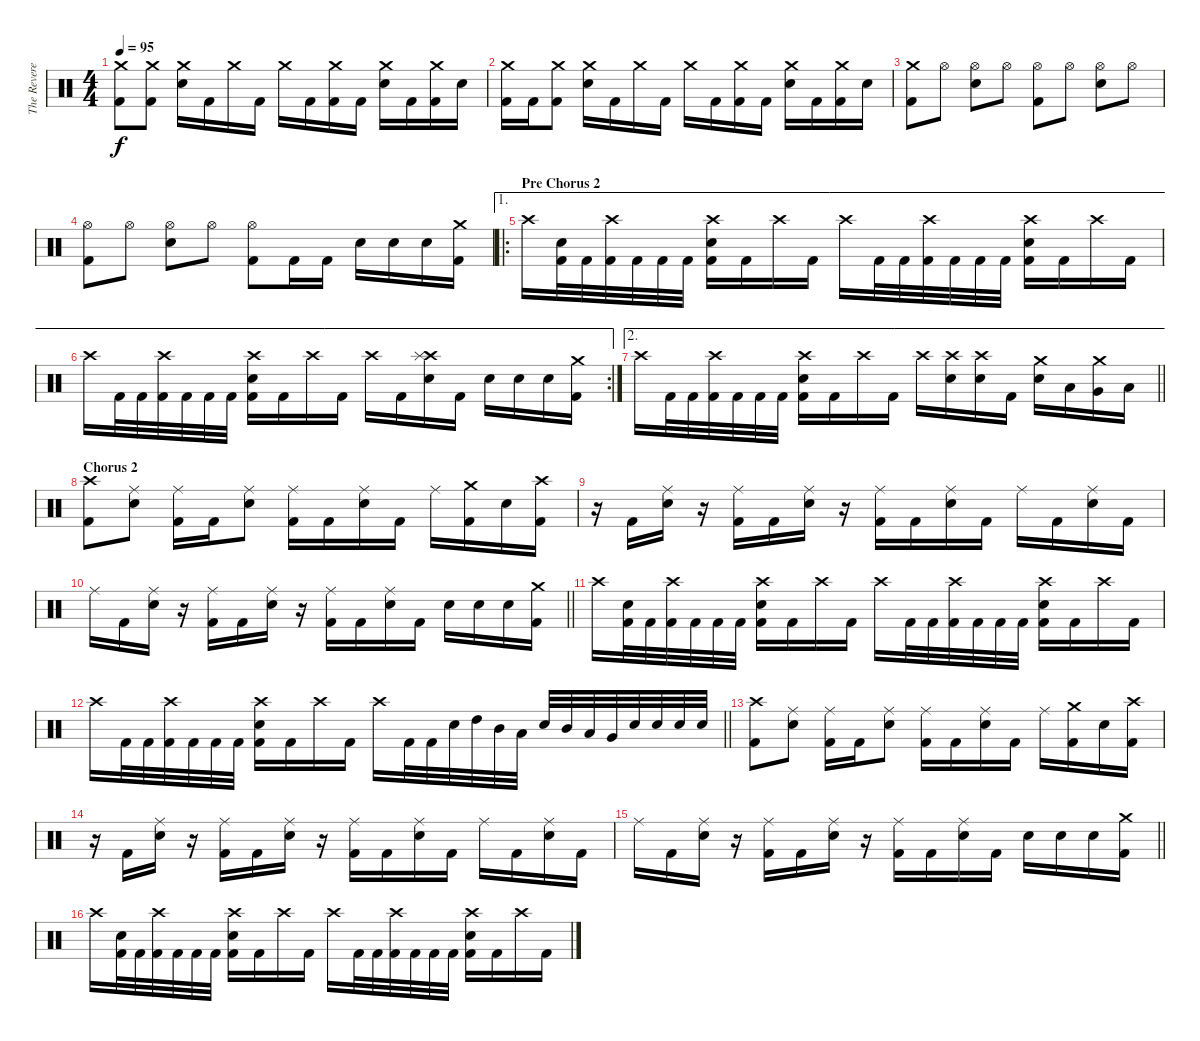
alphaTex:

\track ("The Reverend" "The Revere") {instrument percussion}
\staff {score}
\articulation defaults
\ts (4 4)
\tempo 95
\clef neutral
\ks c
("Crash medium (hit)" "Kick (hit) 2").8{dy f} ("Crash medium (hit)" "Kick (hit) 2").8 ("Crash medium (hit)" "Electric Snare (hit)").16 "Kick (hit) 2".16 "Crash medium (hit)".16 "Kick (hit) 2".16 "Crash medium (hit)".16 "Kick (hit) 2".16 ("Crash medium (hit)" "Kick (hit) 2").16 "Kick (hit) 2".16 ("Crash medium (hit)" "Electric Snare (hit)").16 "Kick (hit) 2".16 ("Crash medium (hit)" "Kick (hit) 2").16 "Electric Snare (hit)".16 |
("Crash medium (hit)" "Kick (hit) 2").16 "Kick (hit) 2".16 ("Crash medium (hit)" "Kick (hit) 2").8 ("Crash medium (hit)" "Electric Snare (hit)").16 "Kick (hit) 2".16 "Crash medium (hit)".16 "Kick (hit) 2".16 "Crash medium (hit)".16 "Kick (hit) 2".16 ("Crash medium (hit)" "Kick (hit) 2").16 "Kick (hit) 2".16 ("Crash medium (hit)" "Electric Snare (hit)").16 "Kick (hit) 2".16 ("Crash medium (hit)" "Kick (hit) 2").16 "Electric Snare (hit)".16 |
("Crash medium (hit)" "Kick (hit) 2").8 "Hi-Hat (open)".8 ("Hi-Hat (open)" "Electric Snare (hit)").8 "Hi-Hat (open)".8 ("Hi-Hat (open)" "Kick (hit) 2").8 "Hi-Hat (open)".8 ("Hi-Hat (open)" "Electric Snare (hit)").8 "Hi-Hat (open)".8 |
("Hi-Hat (open)" "Kick (hit) 2").8 "Hi-Hat (open)".8 ("Hi-Hat (open)" "Electric Snare (hit)").8 "Hi-Hat (open)".8 ("Hi-Hat (open)" "Kick (hit) 2").8 "Kick (hit) 2".16 "Kick (hit) 2".16 "Electric Snare (hit)".16 "Electric Snare (hit)".16 "Electric Snare (hit)".16 ("Crash medium (hit)" "Kick (hit) 2").16 |
\ae 1
\ro
\section ("" "Pre Chorus 2")
"Crash high (hit)".16 ("Electric Snare (hit)" "Kick (hit) 2").32 "Kick (hit) 2".32 ("Crash high (hit)" "Kick (hit) 2").32 "Kick (hit) 2".32 "Kick (hit) 2".32 "Kick (hit) 2".32 ("Crash high (hit)" "Electric Snare (hit)" "Kick (hit) 2").16 "Kick (hit) 2".16 "Crash high (hit)".16 "Kick (hit) 2".16 "Crash high (hit)".16 "Kick (hit) 2".32 "Kick (hit) 2".32 ("Crash high (hit)" "Kick (hit) 2").32 "Kick (hit) 2".32 "Kick (hit) 2".32 "Kick (hit) 2".32 ("Crash high (hit)" "Electric Snare (hit)" "Kick (hit) 2").16 "Kick (hit) 2".16 "Crash high (hit)".16 "Kick (hit) 2".16 |
\ae 1
\rc 2 "Crash high (hit)".16 "Kick (hit) 2".32 "Kick (hit) 2".32
("Crash high (hit)" "Kick (hit) 2").32 "Kick (hit) 2".32 "Kick (hit) 2".32 "Kick (hit) 2".32 ("Crash high (hit)" "Electric Snare (hit)" "Kick (hit) 2").16 "Kick (hit) 2".16 "Crash high (hit)".16 "Kick (hit) 2".16 "Crash high (hit)".16 "Kick (hit) 2".16 ("Crash high (hit)" "Splash (hit)" "Electric Snare (hit)").16 "Kick (hit) 2".16 "Electric Snare (hit)".16 "Electric Snare (hit)".16 "Electric Snare (hit)".16 ("Crash medium (hit)" "Kick (hit) 2").16 |
\ae 2
\barLineRight lightlight "Crash high (hit)".16 "Kick (hit) 2".32 "Kick (hit) 2".32
("Crash high (hit)" "Kick (hit) 2").32 "Kick (hit) 2".32 "Kick (hit) 2".32 "Kick (hit) 2".32 ("Crash high (hit)" "Electric Snare (hit)" "Kick (hit) 2").16 "Kick (hit) 2".16 "Crash high (hit)".16 "Kick (hit) 2".16 "Crash high (hit)".16 ("Crash high (hit)" "Electric Snare (hit)").16 ("Crash high (hit)" "Electric Snare (hit)").16 "Kick (hit) 2".16 ("Crash medium (hit)" "Electric Snare (hit)").16 "Low Tom (hit)".16 ("Crash medium (hit)" "Very Low Tom (hit)").16 "Low Floor Tom (hit)".16 |
\section ("" "Chorus 2")
("Crash high (hit)" "Kick (hit) 2").8 ("Ride (middle)" "Electric Snare (hit)").8 ("Ride (middle)" "Kick (hit) 2").16 "Kick (hit) 2".16 ("Ride (middle)" "Electric Snare (hit)").8 ("Ride (middle)" "Kick (hit) 2").16 "Kick (hit) 2".16 ("Ride (middle)" "Electric Snare (hit)").16 "Kick (hit) 2".16 "Ride (middle)".16 ("Crash medium (hit)" "Kick (hit) 2").16 "Electric Snare (hit)".16 ("Crash high (hit)" "Kick (hit) 2").16 |
r.16 "Kick (hit) 2".16 ("Ride (middle)" "Electric Snare (hit)").16 r.16 ("Ride (middle)" "Kick (hit) 2").16 "Kick (hit) 2".16 ("Ride (middle)" "Electric Snare (hit)").16 r.16 ("Ride (middle)" "Kick (hit) 2").16 "Kick (hit) 2".16 ("Ride (middle)" "Electric Snare (hit)").16 "Kick (hit) 2".16 "Ride (middle)".16 "Kick (hit) 2".16 ("Ride (middle)" "Electric Snare (hit)").16 "Kick (hit) 2".16 |
\barLineRight lightlight "Ride (middle)".16 "Kick (hit) 2".16
("Ride (middle)" "Electric Snare (hit)").16 r.16 ("Ride (middle)" "Kick (hit) 2").16 "Kick (hit) 2".16 ("Ride (middle)" "Electric Snare (hit)").16 r.16 ("Ride (middle)" "Kick (hit) 2").16 "Kick (hit) 2".16 ("Ride (middle)" "Electric Snare (hit)").16 "Kick (hit) 2".16 "Electric Snare (hit)".16 "Electric Snare (hit)".16 "Electric Snare (hit)".16 ("Crash medium (hit)" "Kick (hit) 2").16 |
"Crash high (hit)".16 ("Electric Snare (hit)" "Kick (hit) 2").32 "Kick (hit) 2".32 ("Crash high (hit)" "Kick (hit) 2").32 "Kick (hit) 2".32 "Kick (hit) 2".32 "Kick (hit) 2".32 ("Crash high (hit)" "Electric Snare (hit)" "Kick (hit) 2").16 "Kick (hit) 2".16 "Crash high (hit)".16 "Kick (hit) 2".16 "Crash high (hit)".16 "Kick (hit) 2".32 "Kick (hit) 2".32 ("Crash high (hit)" "Kick (hit) 2").32 "Kick (hit) 2".32 "Kick (hit) 2".32 "Kick (hit) 2".32 ("Crash high (hit)" "Electric Snare (hit)" "Kick (hit) 2").16 "Kick (hit) 2".16 "Crash high (hit)".16 "Kick (hit) 2".16 |
\barLineRight lightlight "Crash high (hit)".16 "Kick (hit) 2".32 "Kick (hit) 2".32
("Crash high (hit)" "Kick (hit) 2").32 "Kick (hit) 2".32 "Kick (hit) 2".32 "Kick (hit) 2".32 ("Crash high (hit)" "Electric Snare (hit)" "Kick (hit) 2").16 "Kick (hit) 2".16 "Crash high (hit)".16 "Kick (hit) 2".16 "Crash high (hit)".16 "Kick (hit) 2".32 "Kick (hit) 2".32 "Electric Snare (hit)".32 "High Tom (hit)".32 "Mid Tom (hit)".32 "Low Tom (hit)".32 "Electric Snare (hit)".32 "Mid Tom (hit)".32 "Low Tom (hit)".32 "Very Low Tom (hit)".32 "Electric Snare (hit)".32 "Electric Snare (hit)".32 "Electric Snare (hit)".32 "Electric Snare (hit)".32 |
("Crash high (hit)" "Kick (hit) 2").8 ("Ride (middle)" "Electric Snare (hit)").8 ("Ride (middle)" "Kick (hit) 2").16 "Kick (hit) 2".16 ("Ride (middle)" "Electric Snare (hit)").8 ("Ride (middle)" "Kick (hit) 2").16 "Kick (hit) 2".16 ("Ride (middle)" "Electric Snare (hit)").16 "Kick (hit) 2".16 "Ride (middle)".16 ("Crash medium (hit)" "Kick (hit) 2").16 "Electric Snare (hit)".16 ("Crash high (hit)" "Kick (hit) 2").16 |
r.16 "Kick (hit) 2".16 ("Ride (middle)" "Electric Snare (hit)").16 r.16 ("Ride (middle)" "Kick (hit) 2").16 "Kick (hit) 2".16 ("Ride (middle)" "Electric Snare (hit)").16 r.16 ("Ride (middle)" "Kick (hit) 2").16 "Kick (hit) 2".16 ("Ride (middle)" "Electric Snare (hit)").16 "Kick (hit) 2".16 "Ride (middle)".16 "Kick (hit) 2".16 ("Ride (middle)" "Electric Snare (hit)").16 "Kick (hit) 2".16 |
\barLineRight lightlight "Ride (middle)".16 "Kick (hit) 2".16
("Ride (middle)" "Electric Snare (hit)").16 r.16 ("Ride (middle)" "Kick (hit) 2").16 "Kick (hit) 2".16 ("Ride (middle)" "Electric Snare (hit)").16 r.16 ("Ride (middle)" "Kick (hit) 2").16 "Kick (hit) 2".16 ("Ride (middle)" "Electric Snare (hit)").16 "Kick (hit) 2".16 "Electric Snare (hit)".16 "Electric Snare (hit)".16 "Electric Snare (hit)".16 ("Crash medium (hit)" "Kick (hit) 2").16 |
"Crash high (hit)".16 ("Electric Snare (hit)" "Kick (hit) 2").32 "Kick (hit) 2".32 ("Crash high (hit)" "Kick (hit) 2").32 "Kick (hit) 2".32 "Kick (hit) 2".32 "Kick (hit) 2".32 ("Crash high (hit)" "Electric Snare (hit)" "Kick (hit) 2").16 "Kick (hit) 2".16 "Crash high (hit)".16 "Kick (hit) 2".16 "Crash high (hit)".16 "Kick (hit) 2".32 "Kick (hit) 2".32 ("Crash high (hit)" "Kick (hit) 2").32 "Kick (hit) 2".32 "Kick (hit) 2".32 "Kick (hit) 2".32 ("Crash high (hit)" "Electric Snare (hit)" "Kick (hit) 2").16 "Kick (hit) 2".16 "Crash high (hit)".16 "Kick (hit) 2".16
